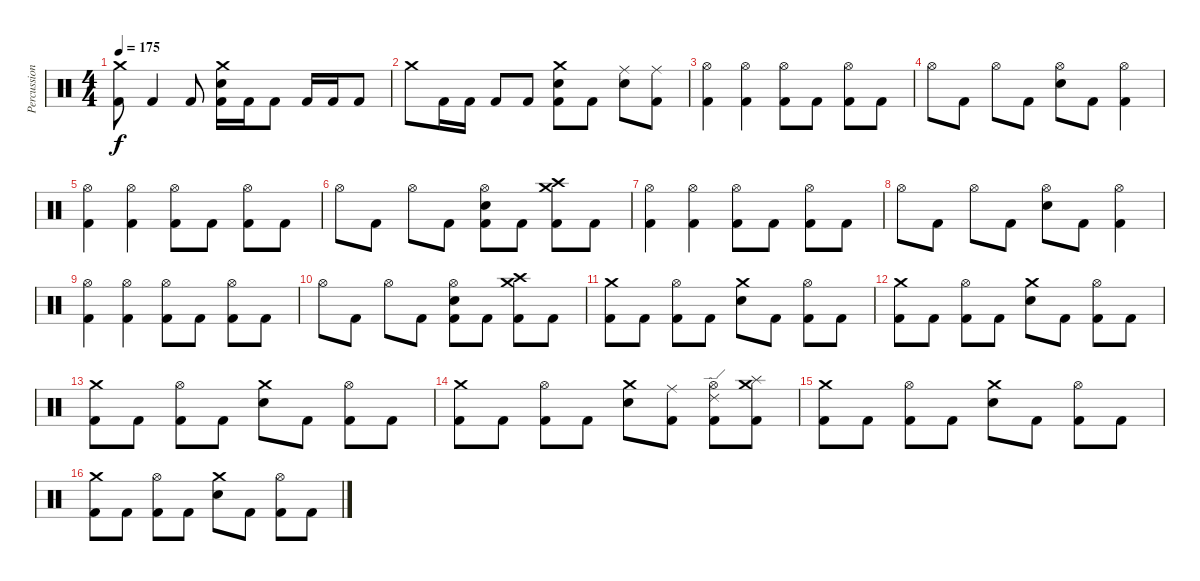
\track ("Percussion" "Percussion") {instrument percussion}
\staff {score}
\articulation defaults
\ts (4 4)
\tempo 175
\clef neutral
\ks c
("Crash medium (hit)" "Kick (hit) 2").8{dy f} "Kick (hit) 2".4 "Kick (hit) 2".8 ("Crash medium (hit)" "Electric Snare (hit)" "Kick (hit) 2").16 "Kick (hit) 2".16 "Kick (hit) 2".8 "Kick (hit) 2".16 "Kick (hit) 2".16 "Kick (hit) 2".8 |
"Crash medium (hit)".8 "Kick (hit) 2".16 "Kick (hit) 2".16 "Kick (hit) 2".8 "Kick (hit) 2".8 ("Crash medium (hit)" "Electric Snare (hit)" "Kick (hit) 2").8 "Kick (hit) 2".8 ("Ride (middle)" "Electric Snare (hit)").8 ("Ride (middle)" "Kick (hit) 2").8 |
("Hi-Hat (open)" "Kick (hit) 2").4 ("Hi-Hat (open)" "Kick (hit) 2").4 ("Hi-Hat (open)" "Kick (hit) 2").8 "Kick (hit) 2".8 ("Hi-Hat (open)" "Kick (hit) 2").8 "Kick (hit) 2".8 |
"Hi-Hat (open)".8 "Kick (hit) 2".8 "Hi-Hat (open)".8 "Kick (hit) 2".8 ("Hi-Hat (open)" "Electric Snare (hit)").8 "Kick (hit) 2".8 ("Hi-Hat (open)" "Kick (hit) 2").4 |
("Hi-Hat (open)" "Kick (hit) 2").4 ("Hi-Hat (open)" "Kick (hit) 2").4 ("Hi-Hat (open)" "Kick (hit) 2").8 "Kick (hit) 2".8 ("Hi-Hat (open)" "Kick (hit) 2").8 "Kick (hit) 2".8 |
"Hi-Hat (open)".8 "Kick (hit) 2".8 "Hi-Hat (open)".8 "Kick (hit) 2".8 ("Hi-Hat (open)" "Electric Snare (hit)" "Kick (hit) 2").8 "Kick (hit) 2".8 ("Crash high (hit)" "Crash medium (hit)" "Kick (hit) 2").8 "Kick (hit) 2".8 |
("Hi-Hat (open)" "Kick (hit) 2").4 ("Hi-Hat (open)" "Kick (hit) 2").4 ("Hi-Hat (open)" "Kick (hit) 2").8 "Kick (hit) 2".8 ("Hi-Hat (open)" "Kick (hit) 2").8 "Kick (hit) 2".8 |
"Hi-Hat (open)".8 "Kick (hit) 2".8 "Hi-Hat (open)".8 "Kick (hit) 2".8 ("Hi-Hat (open)" "Electric Snare (hit)").8 "Kick (hit) 2".8 ("Hi-Hat (open)" "Kick (hit) 2").4 |
("Hi-Hat (open)" "Kick (hit) 2").4 ("Hi-Hat (open)" "Kick (hit) 2").4 ("Hi-Hat (open)" "Kick (hit) 2").8 "Kick (hit) 2".8 ("Hi-Hat (open)" "Kick (hit) 2").8 "Kick (hit) 2".8 |
"Hi-Hat (open)".8 "Kick (hit) 2".8 "Hi-Hat (open)".8 "Kick (hit) 2".8 ("Hi-Hat (open)" "Electric Snare (hit)" "Kick (hit) 2").8 "Kick (hit) 2".8 ("Crash high (hit)" "Crash medium (hit)" "Kick (hit) 2").8 "Kick (hit) 2".8 |
("Crash medium (hit)" "Kick (hit) 2").8 "Kick (hit) 2".8 ("Hi-Hat (open)" "Kick (hit) 2").8 "Kick (hit) 2".8 ("Crash medium (hit)" "Electric Snare (hit)").8 "Kick (hit) 2".8 ("Hi-Hat (open)" "Kick (hit) 2").8 "Kick (hit) 2".8 |
("Crash medium (hit)" "Kick (hit) 2").8 "Kick (hit) 2".8 ("Hi-Hat (open)" "Kick (hit) 2").8 "Kick (hit) 2".8 ("Crash medium (hit)" "Electric Snare (hit)").8 "Kick (hit) 2".8 ("Hi-Hat (open)" "Kick (hit) 2").8 "Kick (hit) 2".8 |
("Crash medium (hit)" "Kick (hit) 2").8 "Kick (hit) 2".8 ("Hi-Hat (open)" "Kick (hit) 2").8 "Kick (hit) 2".8 ("Crash medium (hit)" "Electric Snare (hit)").8 "Kick (hit) 2".8 ("Hi-Hat (open)" "Kick (hit) 2").8 "Kick (hit) 2".8 |
("Crash medium (hit)" "Kick (hit) 2").8 "Kick (hit) 2".8 ("Hi-Hat (open)" "Kick (hit) 2").8 "Kick (hit) 2".8 ("Crash medium (hit)" "Electric Snare (hit)").8 ("Ride (middle)" "Kick (hit) 2").8 ("Ride (edge) 2" "Hi-Hat (open)" "Kick (hit) 2").8 ("Splash (hit)" "Crash medium (hit)" "Kick (hit) 2").8 |
("Crash medium (hit)" "Kick (hit) 2").8 "Kick (hit) 2".8 ("Hi-Hat (open)" "Kick (hit) 2").8 "Kick (hit) 2".8 ("Crash medium (hit)" "Electric Snare (hit)").8 "Kick (hit) 2".8 ("Hi-Hat (open)" "Kick (hit) 2").8 "Kick (hit) 2".8 |
("Crash medium (hit)" "Kick (hit) 2").8 "Kick (hit) 2".8 ("Hi-Hat (open)" "Kick (hit) 2").8 "Kick (hit) 2".8 ("Crash medium (hit)" "Electric Snare (hit)").8 "Kick (hit) 2".8 ("Hi-Hat (open)" "Kick (hit) 2").8 "Kick (hit) 2".8
